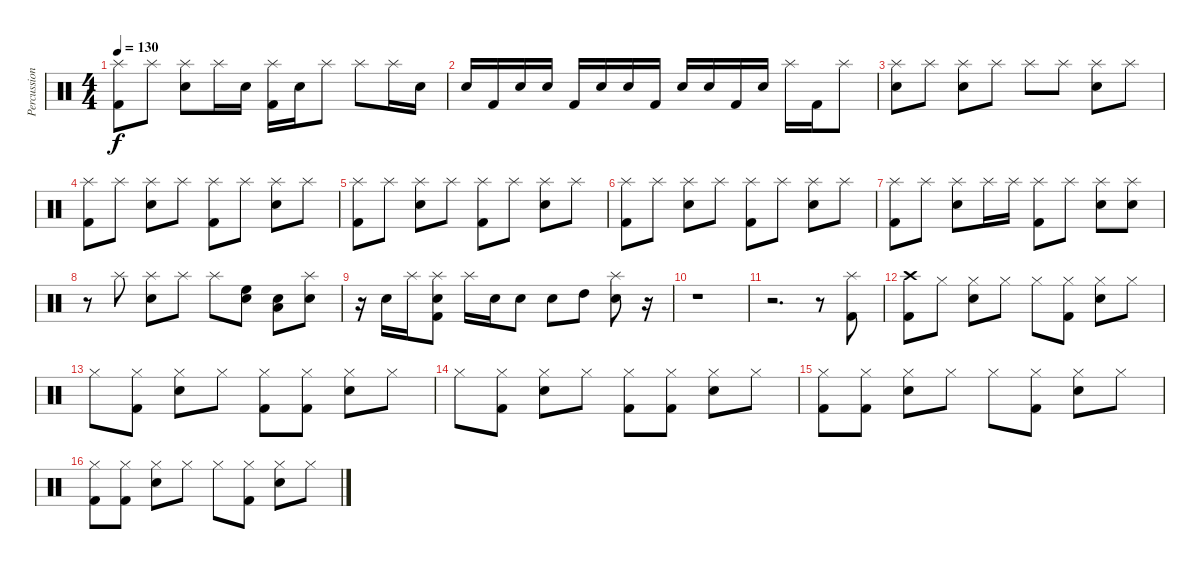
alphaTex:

\track ("Percussion" "Percussion") {instrument percussion}
\staff {score}
\articulation defaults
\ts (4 4)
\tempo 130
\clef neutral
\ks c
("Kick (hit) 2" "Splash (hit)").8{dy f} "Splash (hit)".8 ("Snare (hit) 2" "Splash (hit)").8 "Splash (hit)".16 "Snare (hit) 2".16 ("Kick (hit) 2" "Splash (hit)").16 "Snare (hit) 2".16 "Splash (hit)".8 "Splash (hit)".8 "Splash (hit)".16 "Snare (hit) 2".16 |
"Snare (hit) 2".16 "Kick (hit) 2".16 "Snare (hit) 2".16 "Snare (hit) 2".16 "Kick (hit) 2".16 "Snare (hit) 2".16 "Snare (hit) 2".16 "Kick (hit) 2".16 "Snare (hit) 2".16 "Snare (hit) 2".16 "Kick (hit) 2".16 "Snare (hit) 2".16 "Splash (hit)".16 "Kick (hit) 2".16 "Splash (hit)".8 |
("Snare (hit) 2" "Splash (hit)").8 "Splash (hit)".8 ("Snare (hit) 2" "Splash (hit)").8 "Splash (hit)".8 "Splash (hit)".8 "Splash (hit)".8 ("Snare (hit) 2" "Splash (hit)").8 "Splash (hit)".8 |
("Kick (hit) 2" "Splash (hit)").8 "Splash (hit)".8 ("Snare (hit) 2" "Splash (hit)").8 "Splash (hit)".8 ("Kick (hit) 2" "Splash (hit)").8 "Splash (hit)".8 ("Snare (hit) 2" "Splash (hit)").8 "Splash (hit)".8 |
("Kick (hit) 2" "Splash (hit)").8 "Splash (hit)".8 ("Snare (hit) 2" "Splash (hit)").8 "Splash (hit)".8 ("Kick (hit) 2" "Splash (hit)").8 "Splash (hit)".8 ("Snare (hit) 2" "Splash (hit)").8 "Splash (hit)".8 |
("Kick (hit) 2" "Splash (hit)").8 "Splash (hit)".8 ("Snare (hit) 2" "Splash (hit)").8 "Splash (hit)".8 ("Kick (hit) 2" "Splash (hit)").8 "Splash (hit)".8 ("Snare (hit) 2" "Splash (hit)").8 "Splash (hit)".8 |
("Kick (hit) 2" "Splash (hit)").8 "Splash (hit)".8 ("Snare (hit) 2" "Splash (hit)").8 "Splash (hit)".16 "Splash (hit)".16 ("Kick (hit) 2" "Splash (hit)").8 "Splash (hit)".8 ("Snare (hit) 2" "Splash (hit)").8 ("Snare (hit) 2" "Splash (hit)").8 |
r.8 "Splash (hit)".8 ("Snare (hit) 2" "Splash (hit)").8 "Splash (hit)".8 "Splash (hit)".8 ("Snare (hit) 2" "High Floor Tom (hit)").8 ("Snare (hit) 2" "Low Tom (hit)").8 ("Snare (hit) 2" "Splash (hit)").8 |
r.16 "Snare (hit) 2".16 "Splash (hit)".16 ("Kick (hit) 2" "Snare (hit) 2" "Splash (hit)").8 "Splash (hit)".16 "Snare (hit) 2".16 "Snare (hit) 2".8 "Snare (hit) 2".8 "High Tom (hit)".8 ("Snare (hit) 2" "Splash (hit)").8 r.16 |
r.1 |
r.2{d} r.8 ("Kick (hit) 2" "Splash (hit)").8 |
("Kick (hit) 2" "Crash high (hit)").8 "Hi-Hat (closed)".8 ("Snare (hit) 2" "Hi-Hat (closed)").8 "Hi-Hat (closed)".8 "Hi-Hat (closed)".8 ("Kick (hit) 2" "Hi-Hat (closed)").8 ("Snare (hit) 2" "Hi-Hat (closed)").8 "Hi-Hat (closed)".8 |
"Hi-Hat (closed)".8 ("Kick (hit) 2" "Hi-Hat (closed)").8 ("Snare (hit) 2" "Hi-Hat (closed)").8 "Hi-Hat (closed)".8 ("Kick (hit) 2" "Hi-Hat (closed)").8 ("Kick (hit) 2" "Hi-Hat (closed)").8 ("Snare (hit) 2" "Hi-Hat (closed)").8 "Hi-Hat (closed)".8 |
"Hi-Hat (closed)".8 ("Kick (hit) 2" "Hi-Hat (closed)").8 ("Snare (hit) 2" "Hi-Hat (closed)").8 "Hi-Hat (closed)".8 ("Kick (hit) 2" "Hi-Hat (closed)").8 ("Kick (hit) 2" "Hi-Hat (closed)").8 ("Snare (hit) 2" "Hi-Hat (closed)").8 "Hi-Hat (closed)".8 |
("Kick (hit) 2" "Hi-Hat (closed)").8 ("Kick (hit) 2" "Hi-Hat (closed)").8 ("Snare (hit) 2" "Hi-Hat (closed)").8 "Hi-Hat (closed)".8 "Hi-Hat (closed)".8 ("Kick (hit) 2" "Hi-Hat (closed)").8 ("Snare (hit) 2" "Hi-Hat (closed)").8 "Hi-Hat (closed)".8 |
("Kick (hit) 2" "Hi-Hat (closed)").8 ("Kick (hit) 2" "Hi-Hat (closed)").8 ("Snare (hit) 2" "Hi-Hat (closed)").8 "Hi-Hat (closed)".8 "Hi-Hat (closed)".8 ("Kick (hit) 2" "Hi-Hat (closed)").8 ("Snare (hit) 2" "Hi-Hat (closed)").8 "Hi-Hat (closed)".8
